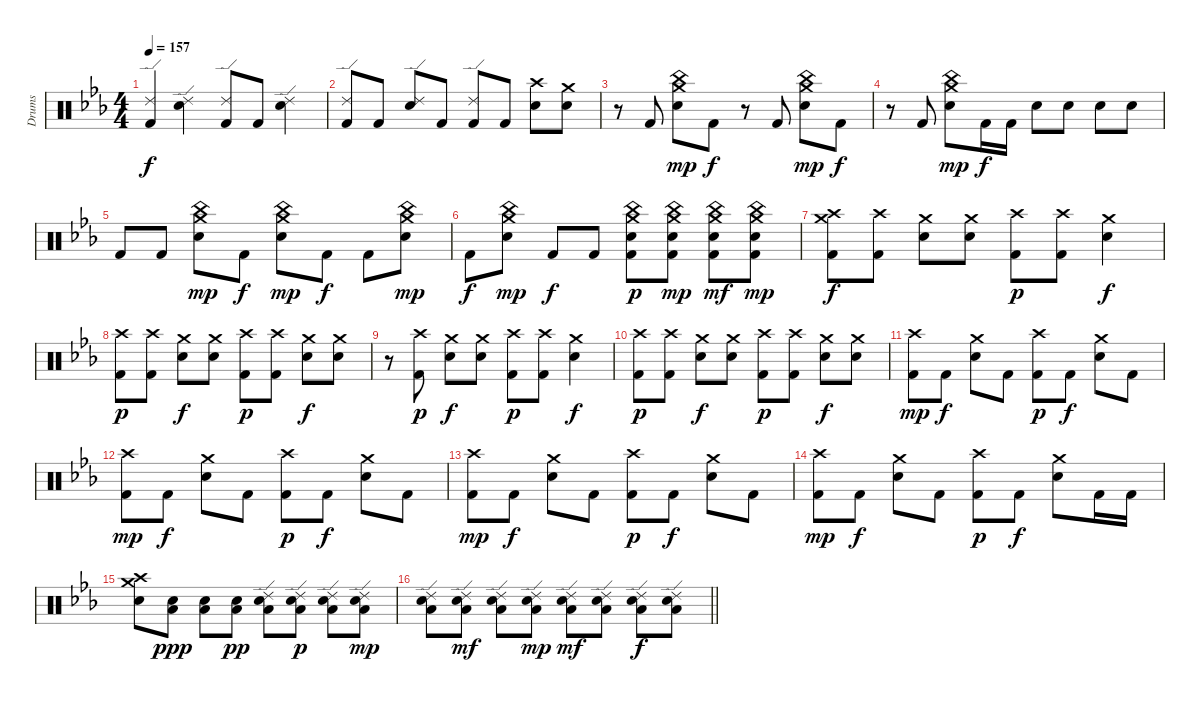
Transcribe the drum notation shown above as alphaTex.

\track ("Drums" "Drums") {instrument percussion}
\staff {score}
\articulation defaults
\ts (4 4)
\tempo 157
\clef neutral
\ks cminor
("Ride (edge) 2" "Kick (hit) 2").4{dy f} ("Ride (edge) 2" "Electric Snare (hit)").4 ("Ride (edge) 2" "Kick (hit) 2").8 "Kick (hit) 2".8 ("Ride (edge) 2" "Electric Snare (hit)").4 |
("Ride (edge) 2" "Kick (hit) 2").8 "Kick (hit) 2".8 ("Ride (edge) 2" "Electric Snare (hit)").8 "Kick (hit) 2".8 ("Ride (edge) 2" "Kick (hit) 2").8 "Kick (hit) 2".8 ("Crash high (hit)" "Electric Snare (hit)").8 ("Crash medium (hit)" "Electric Snare (hit)").8 |
r.8 "Kick (hit) 2".8 ("China (hit)" "Crash medium (hit)" "Electric Snare (hit)").8{dy mp} "Kick (hit) 2".8{dy f} r.8 "Kick (hit) 2".8 ("China (hit)" "Crash medium (hit)" "Electric Snare (hit)").8{dy mp} "Kick (hit) 2".8{dy f} |
r.8 "Kick (hit) 2".8 ("China (hit)" "Crash medium (hit)" "Electric Snare (hit)").8{dy mp} "Kick (hit) 2".16{dy f} "Kick (hit) 2".16 "Electric Snare (hit)".8 "Electric Snare (hit)".8 "Electric Snare (hit)".8 "Electric Snare (hit)".8 |
"Kick (hit) 2".8 "Kick (hit) 2".8 ("China (hit)" "Crash medium (hit)" "Electric Snare (hit)").8{dy mp} "Kick (hit) 2".8{dy f} ("China (hit)" "Crash medium (hit)" "Electric Snare (hit)").8{dy mp} "Kick (hit) 2".8{dy f} "Kick (hit) 2".8 ("China (hit)" "Crash medium (hit)" "Electric Snare (hit)").8{dy mp} |
"Kick (hit) 2".8{dy f} ("China (hit)" "Crash medium (hit)" "Electric Snare (hit)").8{dy mp} "Kick (hit) 2".8{dy f} "Kick (hit) 2".8 ("China (hit)" "Crash medium (hit)" "Electric Snare (hit)" "Kick (hit) 2").8{dy p} ("China (hit)" "Crash medium (hit)" "Electric Snare (hit)" "Kick (hit) 2").8{dy mp} ("China (hit)" "Crash medium (hit)" "Electric Snare (hit)" "Kick (hit) 2").8{dy mf} ("China (hit)" "Crash medium (hit)" "Electric Snare (hit)" "Kick (hit) 2").8{dy mp} |
("Crash high (hit)" "Crash medium (hit)" "Kick (hit) 2").8{dy f} ("Crash high (hit)" "Kick (hit) 2").8 ("Crash medium (hit)" "Electric Snare (hit)").8 ("Crash medium (hit)" "Electric Snare (hit)").8 ("Crash high (hit)" "Kick (hit) 2").8{dy p} ("Crash high (hit)" "Kick (hit) 2").8 ("Crash medium (hit)" "Electric Snare (hit)").4{dy f} |
("Crash high (hit)" "Kick (hit) 2").8{dy p} ("Crash high (hit)" "Kick (hit) 2").8 ("Crash medium (hit)" "Electric Snare (hit)").8{dy f} ("Crash medium (hit)" "Electric Snare (hit)").8 ("Crash high (hit)" "Kick (hit) 2").8{dy p} ("Crash high (hit)" "Kick (hit) 2").8 ("Crash medium (hit)" "Electric Snare (hit)").8{dy f} ("Crash medium (hit)" "Electric Snare (hit)").8 |
r.8 ("Crash high (hit)" "Kick (hit) 2").8{dy p} ("Crash medium (hit)" "Electric Snare (hit)").8{dy f} ("Crash medium (hit)" "Electric Snare (hit)").8 ("Crash high (hit)" "Kick (hit) 2").8{dy p} ("Crash high (hit)" "Kick (hit) 2").8 ("Crash medium (hit)" "Electric Snare (hit)").4{dy f} |
("Crash high (hit)" "Kick (hit) 2").8{dy p} ("Crash high (hit)" "Kick (hit) 2").8 ("Crash medium (hit)" "Electric Snare (hit)").8{dy f} ("Crash medium (hit)" "Electric Snare (hit)").8 ("Crash high (hit)" "Kick (hit) 2").8{dy p} ("Crash high (hit)" "Kick (hit) 2").8 ("Crash medium (hit)" "Electric Snare (hit)").8{dy f} ("Crash medium (hit)" "Electric Snare (hit)").8 |
("Crash high (hit)" "Kick (hit) 2").8{dy mp} "Kick (hit) 2".8{dy f} ("Crash medium (hit)" "Electric Snare (hit)").8 "Kick (hit) 2".8 ("Crash high (hit)" "Kick (hit) 2").8{dy p} "Kick (hit) 2".8{dy f} ("Crash medium (hit)" "Electric Snare (hit)").8 "Kick (hit) 2".8 |
("Crash high (hit)" "Kick (hit) 2").8{dy mp} "Kick (hit) 2".8{dy f} ("Crash medium (hit)" "Electric Snare (hit)").8 "Kick (hit) 2".8 ("Crash high (hit)" "Kick (hit) 2").8{dy p} "Kick (hit) 2".8{dy f} ("Crash medium (hit)" "Electric Snare (hit)").8 "Kick (hit) 2".8 |
("Crash high (hit)" "Kick (hit) 2").8{dy mp} "Kick (hit) 2".8{dy f} ("Crash medium (hit)" "Electric Snare (hit)").8 "Kick (hit) 2".8 ("Crash high (hit)" "Kick (hit) 2").8{dy p} "Kick (hit) 2".8{dy f} ("Crash medium (hit)" "Electric Snare (hit)").8 "Kick (hit) 2".8 |
("Crash high (hit)" "Kick (hit) 2").8{dy mp} "Kick (hit) 2".8{dy f} ("Crash medium (hit)" "Electric Snare (hit)").8 "Kick (hit) 2".8 ("Crash high (hit)" "Kick (hit) 2").8{dy p} "Kick (hit) 2".8{dy f} ("Crash medium (hit)" "Electric Snare (hit)").8 "Kick (hit) 2".16 "Kick (hit) 2".16 |
("Crash medium (hit)" "Crash high (hit)" "Electric Snare (hit)").8 ("Low Floor Tom (hit)" "Electric Snare (hit)").8{dy ppp} ("Low Floor Tom (hit)" "Electric Snare (hit)").8 ("Low Floor Tom (hit)" "Electric Snare (hit)").8{dy pp} ("Ride (edge) 2" "Low Floor Tom (hit)" "Electric Snare (hit)").8 ("Ride (edge) 2" "Low Floor Tom (hit)" "Electric Snare (hit)").8{dy p} ("Ride (edge) 2" "Low Floor Tom (hit)" "Electric Snare (hit)").8 ("Ride (edge) 2" "Low Floor Tom (hit)" "Electric Snare (hit)").8{dy mp} |
\barLineRight lightlight
("Ride (edge) 2" "Low Floor Tom (hit)" "Electric Snare (hit)").8 ("Ride (edge) 2" "Low Floor Tom (hit)" "Electric Snare (hit)").8{dy mf} ("Ride (edge) 2" "Low Floor Tom (hit)" "Electric Snare (hit)").8 ("Ride (edge) 2" "Low Floor Tom (hit)" "Electric Snare (hit)").8{dy mp} ("Ride (edge) 2" "Low Floor Tom (hit)" "Electric Snare (hit)").8{dy mf} ("Ride (edge) 2" "Low Floor Tom (hit)" "Electric Snare (hit)").8 ("Ride (edge) 2" "Low Floor Tom (hit)" "Electric Snare (hit)").8{dy f} ("Ride (edge) 2" "Low Floor Tom (hit)" "Electric Snare (hit)").8
